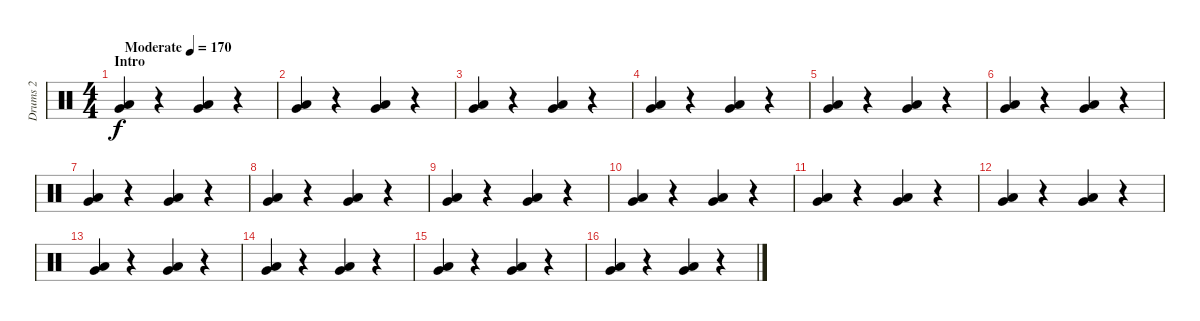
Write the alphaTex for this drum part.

\track ("Drums 2" "Drums 2") {instrument percussion}
\staff {score}
\articulation defaults
\ts (4 4)
\section ("" "Intro")
\tempo (170 "Moderate")
\clef neutral
\ks c
("Very Low Tom (hit)" "Low Tom (hit)").4{dy f} r.4 ("Very Low Tom (hit)" "Low Tom (hit)").4 r.4 |
("Very Low Tom (hit)" "Low Tom (hit)").4 r.4 ("Very Low Tom (hit)" "Low Tom (hit)").4 r.4 |
("Very Low Tom (hit)" "Low Tom (hit)").4 r.4 ("Very Low Tom (hit)" "Low Tom (hit)").4 r.4 |
("Very Low Tom (hit)" "Low Tom (hit)").4 r.4 ("Very Low Tom (hit)" "Low Tom (hit)").4 r.4 |
("Very Low Tom (hit)" "Low Tom (hit)").4 r.4 ("Very Low Tom (hit)" "Low Tom (hit)").4 r.4 |
("Very Low Tom (hit)" "Low Tom (hit)").4 r.4 ("Very Low Tom (hit)" "Low Tom (hit)").4 r.4 |
("Very Low Tom (hit)" "Low Tom (hit)").4 r.4 ("Very Low Tom (hit)" "Low Tom (hit)").4 r.4 |
("Very Low Tom (hit)" "Low Tom (hit)").4 r.4 ("Very Low Tom (hit)" "Low Tom (hit)").4 r.4 |
("Very Low Tom (hit)" "Low Tom (hit)").4 r.4 ("Very Low Tom (hit)" "Low Tom (hit)").4 r.4 |
("Very Low Tom (hit)" "Low Tom (hit)").4 r.4 ("Very Low Tom (hit)" "Low Tom (hit)").4 r.4 |
("Very Low Tom (hit)" "Low Tom (hit)").4 r.4 ("Very Low Tom (hit)" "Low Tom (hit)").4 r.4 |
("Very Low Tom (hit)" "Low Tom (hit)").4 r.4 ("Very Low Tom (hit)" "Low Tom (hit)").4 r.4 |
("Very Low Tom (hit)" "Low Tom (hit)").4 r.4 ("Very Low Tom (hit)" "Low Tom (hit)").4 r.4 |
("Very Low Tom (hit)" "Low Tom (hit)").4 r.4 ("Very Low Tom (hit)" "Low Tom (hit)").4 r.4 |
("Very Low Tom (hit)" "Low Tom (hit)").4 r.4 ("Very Low Tom (hit)" "Low Tom (hit)").4 r.4 |
("Very Low Tom (hit)" "Low Tom (hit)").4 r.4 ("Very Low Tom (hit)" "Low Tom (hit)").4 r.4
